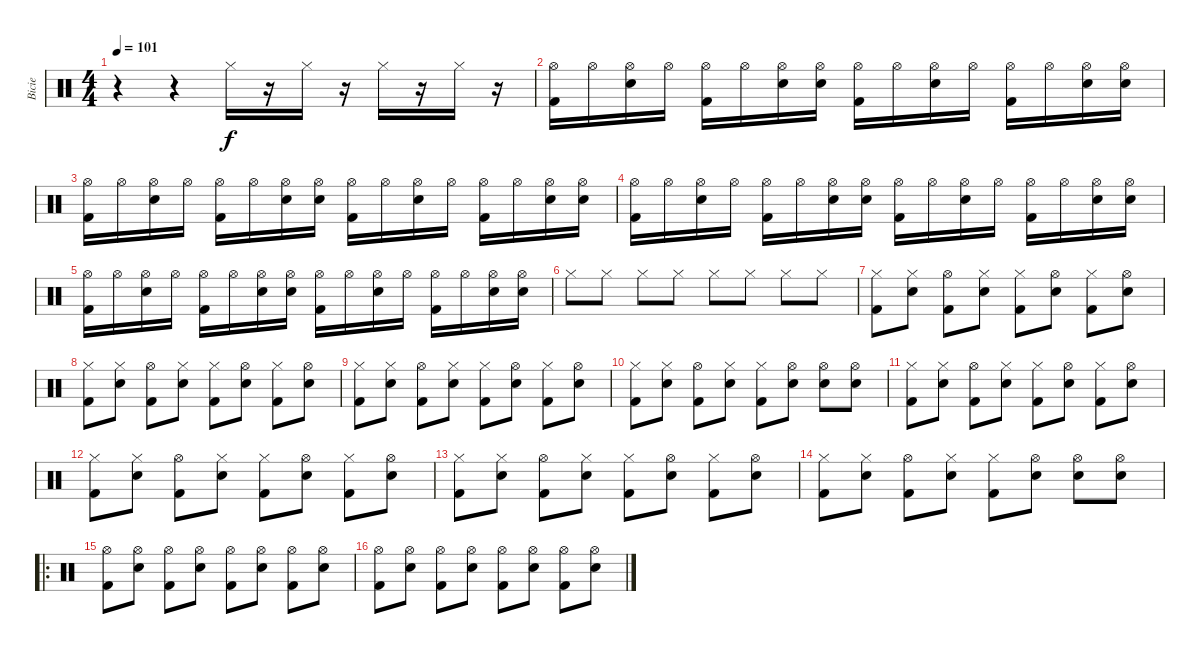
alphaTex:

\track ("Bicie" "Bicie") {instrument percussion}
\staff {score}
\articulation defaults
\ts (4 4)
\tempo 101
\clef neutral
\ks c
r.4{dy f} r.4 "Hi-Hat (closed)".16 r.16 "Hi-Hat (closed)".16 r.16 "Hi-Hat (closed)".16 r.16 "Hi-Hat (closed)".16 r.16 |
("Kick (hit) 2" "Hi-Hat (open)").16 "Hi-Hat (open)".16 ("Snare (hit) 2" "Hi-Hat (open)").16 "Hi-Hat (open)".16 ("Kick (hit) 2" "Hi-Hat (open)").16 "Hi-Hat (open)".16 ("Snare (hit) 2" "Hi-Hat (open)").16 ("Snare (hit) 2" "Hi-Hat (open)").16 ("Kick (hit) 2" "Hi-Hat (open)").16 "Hi-Hat (open)".16 ("Snare (hit) 2" "Hi-Hat (open)").16 "Hi-Hat (open)".16 ("Kick (hit) 2" "Hi-Hat (open)").16 "Hi-Hat (open)".16 ("Snare (hit) 2" "Hi-Hat (open)").16 ("Snare (hit) 2" "Hi-Hat (open)").16 |
("Kick (hit) 2" "Hi-Hat (open)").16 "Hi-Hat (open)".16 ("Snare (hit) 2" "Hi-Hat (open)").16 "Hi-Hat (open)".16 ("Kick (hit) 2" "Hi-Hat (open)").16 "Hi-Hat (open)".16 ("Snare (hit) 2" "Hi-Hat (open)").16 ("Snare (hit) 2" "Hi-Hat (open)").16 ("Kick (hit) 2" "Hi-Hat (open)").16 "Hi-Hat (open)".16 ("Snare (hit) 2" "Hi-Hat (open)").16 "Hi-Hat (open)".16 ("Kick (hit) 2" "Hi-Hat (open)").16 "Hi-Hat (open)".16 ("Snare (hit) 2" "Hi-Hat (open)").16 ("Snare (hit) 2" "Hi-Hat (open)").16 |
("Kick (hit) 2" "Hi-Hat (open)").16 "Hi-Hat (open)".16 ("Snare (hit) 2" "Hi-Hat (open)").16 "Hi-Hat (open)".16 ("Kick (hit) 2" "Hi-Hat (open)").16 "Hi-Hat (open)".16 ("Snare (hit) 2" "Hi-Hat (open)").16 ("Snare (hit) 2" "Hi-Hat (open)").16 ("Kick (hit) 2" "Hi-Hat (open)").16 "Hi-Hat (open)".16 ("Snare (hit) 2" "Hi-Hat (open)").16 "Hi-Hat (open)".16 ("Kick (hit) 2" "Hi-Hat (open)").16 "Hi-Hat (open)".16 ("Snare (hit) 2" "Hi-Hat (open)").16 ("Snare (hit) 2" "Hi-Hat (open)").16 |
("Kick (hit) 2" "Hi-Hat (open)").16 "Hi-Hat (open)".16 ("Snare (hit) 2" "Hi-Hat (open)").16 "Hi-Hat (open)".16 ("Kick (hit) 2" "Hi-Hat (open)").16 "Hi-Hat (open)".16 ("Snare (hit) 2" "Hi-Hat (open)").16 ("Snare (hit) 2" "Hi-Hat (open)").16 ("Kick (hit) 2" "Hi-Hat (open)").16 "Hi-Hat (open)".16 ("Snare (hit) 2" "Hi-Hat (open)").16 "Hi-Hat (open)".16 ("Kick (hit) 2" "Hi-Hat (open)").16 "Hi-Hat (open)".16 ("Snare (hit) 2" "Hi-Hat (open)").16 ("Snare (hit) 2" "Hi-Hat (open)").16 |
"Hi-Hat (closed)".8 "Hi-Hat (closed)".8 "Hi-Hat (closed)".8 "Hi-Hat (closed)".8 "Hi-Hat (closed)".8 "Hi-Hat (closed)".8 "Hi-Hat (closed)".8 "Hi-Hat (closed)".8 |
("Hi-Hat (closed)" "Kick (hit) 2").8 ("Hi-Hat (closed)" "Snare (hit) 2").8 ("Hi-Hat (open)" "Kick (hit) 2").8 ("Hi-Hat (closed)" "Snare (hit) 2").8 ("Hi-Hat (closed)" "Kick (hit) 2").8 ("Hi-Hat (open)" "Snare (hit) 2").8 ("Hi-Hat (closed)" "Kick (hit) 2").8 ("Hi-Hat (open)" "Snare (hit) 2").8 |
("Hi-Hat (closed)" "Kick (hit) 2").8 ("Hi-Hat (closed)" "Snare (hit) 2").8 ("Hi-Hat (open)" "Kick (hit) 2").8 ("Hi-Hat (closed)" "Snare (hit) 2").8 ("Hi-Hat (closed)" "Kick (hit) 2").8 ("Hi-Hat (open)" "Snare (hit) 2").8 ("Hi-Hat (closed)" "Kick (hit) 2").8 ("Hi-Hat (open)" "Snare (hit) 2").8 |
("Hi-Hat (closed)" "Kick (hit) 2").8 ("Hi-Hat (closed)" "Snare (hit) 2").8 ("Hi-Hat (open)" "Kick (hit) 2").8 ("Hi-Hat (closed)" "Snare (hit) 2").8 ("Hi-Hat (closed)" "Kick (hit) 2").8 ("Hi-Hat (open)" "Snare (hit) 2").8 ("Hi-Hat (closed)" "Kick (hit) 2").8 ("Hi-Hat (open)" "Snare (hit) 2").8 |
("Hi-Hat (closed)" "Kick (hit) 2").8 ("Hi-Hat (closed)" "Snare (hit) 2").8 ("Hi-Hat (open)" "Kick (hit) 2").8 ("Hi-Hat (closed)" "Snare (hit) 2").8 ("Hi-Hat (closed)" "Kick (hit) 2").8 ("Hi-Hat (open)" "Snare (hit) 2").8 ("Hi-Hat (open)" "Snare (hit) 2").8 ("Hi-Hat (open)" "Snare (hit) 2").8 |
("Hi-Hat (closed)" "Kick (hit) 2").8 ("Hi-Hat (closed)" "Snare (hit) 2").8 ("Hi-Hat (open)" "Kick (hit) 2").8 ("Hi-Hat (closed)" "Snare (hit) 2").8 ("Hi-Hat (closed)" "Kick (hit) 2").8 ("Hi-Hat (open)" "Snare (hit) 2").8 ("Hi-Hat (closed)" "Kick (hit) 2").8 ("Hi-Hat (open)" "Snare (hit) 2").8 |
("Hi-Hat (closed)" "Kick (hit) 2").8 ("Hi-Hat (closed)" "Snare (hit) 2").8 ("Hi-Hat (open)" "Kick (hit) 2").8 ("Hi-Hat (closed)" "Snare (hit) 2").8 ("Hi-Hat (closed)" "Kick (hit) 2").8 ("Hi-Hat (open)" "Snare (hit) 2").8 ("Hi-Hat (closed)" "Kick (hit) 2").8 ("Hi-Hat (open)" "Snare (hit) 2").8 |
("Hi-Hat (closed)" "Kick (hit) 2").8 ("Hi-Hat (closed)" "Snare (hit) 2").8 ("Hi-Hat (open)" "Kick (hit) 2").8 ("Hi-Hat (closed)" "Snare (hit) 2").8 ("Hi-Hat (closed)" "Kick (hit) 2").8 ("Hi-Hat (open)" "Snare (hit) 2").8 ("Hi-Hat (closed)" "Kick (hit) 2").8 ("Hi-Hat (open)" "Snare (hit) 2").8 |
("Hi-Hat (closed)" "Kick (hit) 2").8 ("Hi-Hat (closed)" "Snare (hit) 2").8 ("Hi-Hat (open)" "Kick (hit) 2").8 ("Hi-Hat (closed)" "Snare (hit) 2").8 ("Hi-Hat (closed)" "Kick (hit) 2").8 ("Hi-Hat (open)" "Snare (hit) 2").8 ("Hi-Hat (open)" "Snare (hit) 2").8 ("Hi-Hat (open)" "Snare (hit) 2").8 |
\ro
("Hi-Hat (open)" "Kick (hit) 2").8 ("Hi-Hat (open)" "Snare (hit) 2").8 ("Hi-Hat (open)" "Kick (hit) 2").8 ("Hi-Hat (open)" "Snare (hit) 2").8 ("Hi-Hat (open)" "Kick (hit) 2").8 ("Hi-Hat (open)" "Snare (hit) 2").8 ("Hi-Hat (open)" "Kick (hit) 2").8 ("Hi-Hat (open)" "Snare (hit) 2").8 |
("Hi-Hat (open)" "Kick (hit) 2").8 ("Hi-Hat (open)" "Snare (hit) 2").8 ("Hi-Hat (open)" "Kick (hit) 2").8 ("Hi-Hat (open)" "Snare (hit) 2").8 ("Hi-Hat (open)" "Kick (hit) 2").8 ("Hi-Hat (open)" "Snare (hit) 2").8 ("Hi-Hat (open)" "Kick (hit) 2").8 ("Hi-Hat (open)" "Snare (hit) 2").8
